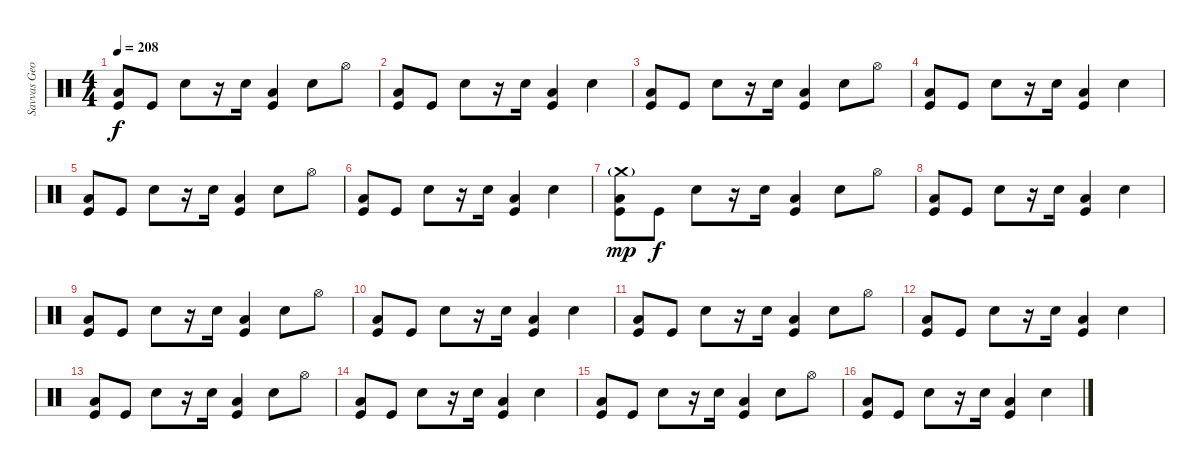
\track ("Savvas Georgiadis" "Savvas Geo") {instrument percussion}
\staff {score}
\articulation defaults
\ts (4 4)
\tempo 208
\clef neutral
\ks c
("Low Tom (hit)" "Kick (hit)").8{dy f} "Kick (hit)".8 "Electric Snare (hit)".8 r.16 "Electric Snare (hit)".16 ("Low Tom (hit)" "Kick (hit)").4 "Electric Snare (hit)".8 "Hi-Hat (open)".8 |
("Low Tom (hit)" "Kick (hit)").8 "Kick (hit)".8 "Electric Snare (hit)".8 r.16 "Electric Snare (hit)".16 ("Low Tom (hit)" "Kick (hit)").4 "Electric Snare (hit)".4 |
("Low Tom (hit)" "Kick (hit)").8 "Kick (hit)".8 "Electric Snare (hit)".8 r.16 "Electric Snare (hit)".16 ("Low Tom (hit)" "Kick (hit)").4 "Electric Snare (hit)".8 "Hi-Hat (open)".8 |
("Low Tom (hit)" "Kick (hit)").8 "Kick (hit)".8 "Electric Snare (hit)".8 r.16 "Electric Snare (hit)".16 ("Low Tom (hit)" "Kick (hit)").4 "Electric Snare (hit)".4 |
("Low Tom (hit)" "Kick (hit)").8 "Kick (hit)".8 "Electric Snare (hit)".8 r.16 "Electric Snare (hit)".16 ("Low Tom (hit)" "Kick (hit)").4 "Electric Snare (hit)".8 "Hi-Hat (open)".8 |
("Low Tom (hit)" "Kick (hit)").8 "Kick (hit)".8 "Electric Snare (hit)".8 r.16 "Electric Snare (hit)".16 ("Low Tom (hit)" "Kick (hit)").4 "Electric Snare (hit)".4 |
("Crash medium (hit)"{g} "Low Tom (hit)" "Kick (hit)").8{dy mp} "Kick (hit)".8{dy f} "Electric Snare (hit)".8 r.16 "Electric Snare (hit)".16 ("Low Tom (hit)" "Kick (hit)").4 "Electric Snare (hit)".8 "Hi-Hat (open)".8 |
("Low Tom (hit)" "Kick (hit)").8 "Kick (hit)".8 "Electric Snare (hit)".8 r.16 "Electric Snare (hit)".16 ("Low Tom (hit)" "Kick (hit)").4 "Electric Snare (hit)".4 |
("Low Tom (hit)" "Kick (hit)").8 "Kick (hit)".8 "Electric Snare (hit)".8 r.16 "Electric Snare (hit)".16 ("Low Tom (hit)" "Kick (hit)").4 "Electric Snare (hit)".8 "Hi-Hat (open)".8 |
("Low Tom (hit)" "Kick (hit)").8 "Kick (hit)".8 "Electric Snare (hit)".8 r.16 "Electric Snare (hit)".16 ("Low Tom (hit)" "Kick (hit)").4 "Electric Snare (hit)".4 |
("Low Tom (hit)" "Kick (hit)").8 "Kick (hit)".8 "Electric Snare (hit)".8 r.16 "Electric Snare (hit)".16 ("Low Tom (hit)" "Kick (hit)").4 "Electric Snare (hit)".8 "Hi-Hat (open)".8 |
("Low Tom (hit)" "Kick (hit)").8 "Kick (hit)".8 "Electric Snare (hit)".8 r.16 "Electric Snare (hit)".16 ("Low Tom (hit)" "Kick (hit)").4 "Electric Snare (hit)".4 |
("Low Tom (hit)" "Kick (hit)").8 "Kick (hit)".8 "Electric Snare (hit)".8 r.16 "Electric Snare (hit)".16 ("Low Tom (hit)" "Kick (hit)").4 "Electric Snare (hit)".8 "Hi-Hat (open)".8 |
("Low Tom (hit)" "Kick (hit)").8 "Kick (hit)".8 "Electric Snare (hit)".8 r.16 "Electric Snare (hit)".16 ("Low Tom (hit)" "Kick (hit)").4 "Electric Snare (hit)".4 |
("Low Tom (hit)" "Kick (hit)").8 "Kick (hit)".8 "Electric Snare (hit)".8 r.16 "Electric Snare (hit)".16 ("Low Tom (hit)" "Kick (hit)").4 "Electric Snare (hit)".8 "Hi-Hat (open)".8 |
("Low Tom (hit)" "Kick (hit)").8 "Kick (hit)".8 "Electric Snare (hit)".8 r.16 "Electric Snare (hit)".16 ("Low Tom (hit)" "Kick (hit)").4 "Electric Snare (hit)".4
